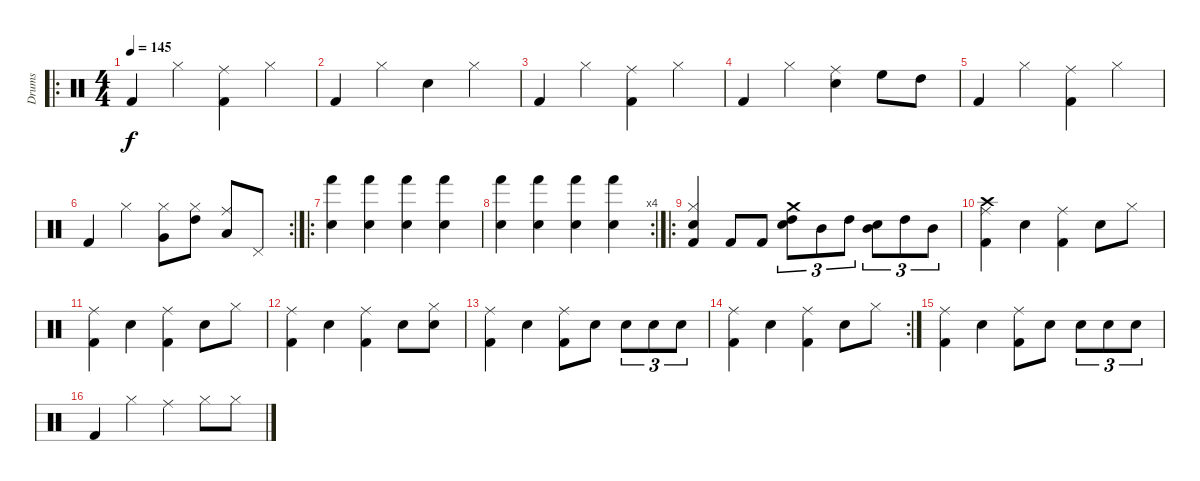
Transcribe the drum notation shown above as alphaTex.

\track ("Drums" "Drums") {instrument percussion}
\staff {score}
\articulation defaults
\ro
\ts (4 4)
\tempo 145
\clef neutral
\ks c "Kick (hit) 2".4{dy f} "Hi-Hat (closed)".4
("Ride (middle)" "Kick (hit) 2").4 "Hi-Hat (closed)".4 |
"Kick (hit) 2".4 "Hi-Hat (closed)".4 "Electric Snare (hit)".4 "Hi-Hat (closed)".4 |
"Kick (hit) 2".4 "Hi-Hat (closed)".4 ("Kick (hit) 2" "Ride (middle)").4 "Hi-Hat (closed)".4 |
"Kick (hit) 2".4 "Hi-Hat (closed)".4 ("Electric Snare (hit)" "Ride (middle)").4 "High Floor Tom (hit)".8 "High Tom (hit)".8 |
"Kick (hit) 2".4 "Hi-Hat (closed)".4 ("Ride (middle)" "Kick (hit) 2").4 "Hi-Hat (closed)".4 |
\rc 2 "Kick (hit) 2".4 "Hi-Hat (closed)".4
("Hi-Hat (closed)" "Very Low Tom (hit)").8 ("Hi-Hat (closed)" "High Tom (hit)").8 ("Ride (middle)" "Low Tom (hit)").8 "Pedal Hi-Hat (hit)".8 |
\ro
("Electric Snare (hit)" "Hand (hit)").4 ("Electric Snare (hit)" "Hand (hit)").4 ("Electric Snare (hit)" "Hand (hit)").4 ("Electric Snare (hit)" "Hand (hit)").4 |
\rc 4
("Electric Snare (hit)" "Hand (hit)").4 ("Electric Snare (hit)" "Hand (hit)").4 ("Electric Snare (hit)" "Hand (hit)").4 ("Electric Snare (hit)" "Hand (hit)").4 |
\ro
("Hi-Hat (closed)" "Electric Snare (hit)" "Kick (hit) 2").4 "Kick (hit) 2".8 "Kick (hit) 2".8 ("Electric Snare (hit)" "High Tom (hit)" "Crash medium (hit)").8{tu (3 2)} "Mid Tom (hit)".8{tu (3 2)} "High Tom (hit)".8{tu (3 2)} ("Electric Snare (hit)" "Mid Tom (hit)").8{tu (3 2)} "High Tom (hit)".8{tu (3 2)} "Mid Tom (hit)".8{tu (3 2)} |
("Ride (middle)" "Crash high (hit)" "Kick (hit) 2").4 "Electric Snare (hit)".4 ("Ride (middle)" "Kick (hit) 2").4 "Electric Snare (hit)".8 "Hi-Hat (closed)".8 |
("Ride (middle)" "Kick (hit) 2").4 "Electric Snare (hit)".4 ("Ride (middle)" "Kick (hit) 2").4 "Electric Snare (hit)".8 "Hi-Hat (closed)".8 |
("Ride (middle)" "Kick (hit) 2").4 "Electric Snare (hit)".4 ("Ride (middle)" "Kick (hit) 2").4 "Electric Snare (hit)".8 ("Hi-Hat (closed)" "Electric Snare (hit)").8 |
("Ride (middle)" "Kick (hit) 2").4 "Electric Snare (hit)".4 ("Ride (middle)" "Kick (hit) 2").8 "Electric Snare (hit)".8 "Electric Snare (hit)".8{tu (3 2)} "Electric Snare (hit)".8{tu (3 2)} "Electric Snare (hit)".8{tu (3 2)} |
\rc 2
("Ride (middle)" "Kick (hit) 2").4 "Electric Snare (hit)".4 ("Ride (middle)" "Kick (hit) 2").4 "Electric Snare (hit)".8 "Hi-Hat (closed)".8 |
("Ride (middle)" "Kick (hit) 2").4 "Electric Snare (hit)".4 ("Ride (middle)" "Kick (hit) 2").8 "Electric Snare (hit)".8 "Electric Snare (hit)".8{tu (3 2)} "Electric Snare (hit)".8{tu (3 2)} "Electric Snare (hit)".8{tu (3 2)} |
"Kick (hit) 2".4 "Hi-Hat (closed)".4 "Ride (middle)".4 "Hi-Hat (closed)".8 "Hi-Hat (closed)".8
